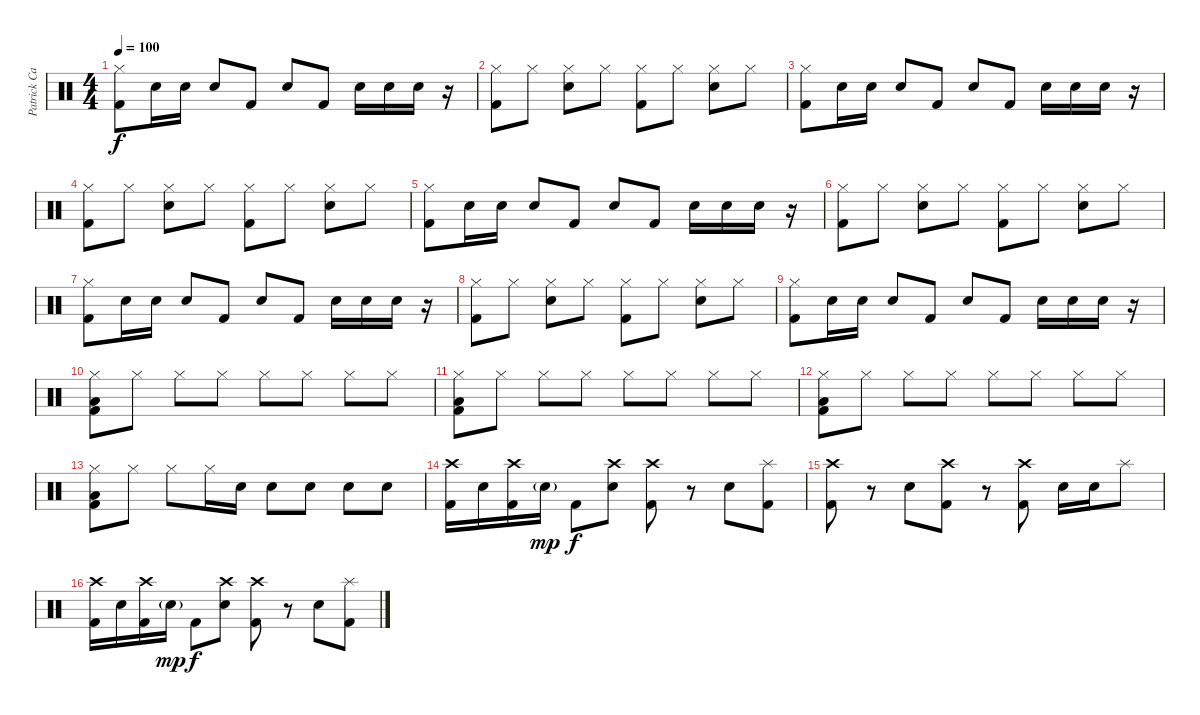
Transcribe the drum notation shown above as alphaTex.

\track ("Patrick Carney" "Patrick Ca") {instrument percussion}
\staff {score}
\articulation defaults
\ts (4 4)
\tempo 100
\clef neutral
\ks c
("Hi-Hat (closed)" "Kick (hit) 2").8{dy f} "Snare (hit) 2".16 "Snare (hit) 2".16 "Snare (hit) 2".8 "Kick (hit) 2".8 "Snare (hit) 2".8 "Kick (hit) 2".8 "Snare (hit) 2".16 "Snare (hit) 2".16 "Snare (hit) 2".16 r.16 |
("Hi-Hat (closed)" "Kick (hit) 2").8 "Hi-Hat (closed)".8 ("Hi-Hat (closed)" "Snare (hit) 2").8 "Hi-Hat (closed)".8 ("Hi-Hat (closed)" "Kick (hit) 2").8 "Hi-Hat (closed)".8 ("Hi-Hat (closed)" "Snare (hit) 2").8 "Hi-Hat (closed)".8 |
("Hi-Hat (closed)" "Kick (hit) 2").8 "Snare (hit) 2".16 "Snare (hit) 2".16 "Snare (hit) 2".8 "Kick (hit) 2".8 "Snare (hit) 2".8 "Kick (hit) 2".8 "Snare (hit) 2".16 "Snare (hit) 2".16 "Snare (hit) 2".16 r.16 |
("Hi-Hat (closed)" "Kick (hit) 2").8 "Hi-Hat (closed)".8 ("Hi-Hat (closed)" "Snare (hit) 2").8 "Hi-Hat (closed)".8 ("Hi-Hat (closed)" "Kick (hit) 2").8 "Hi-Hat (closed)".8 ("Hi-Hat (closed)" "Snare (hit) 2").8 "Hi-Hat (closed)".8 |
("Hi-Hat (closed)" "Kick (hit) 2").8 "Snare (hit) 2".16 "Snare (hit) 2".16 "Snare (hit) 2".8 "Kick (hit) 2".8 "Snare (hit) 2".8 "Kick (hit) 2".8 "Snare (hit) 2".16 "Snare (hit) 2".16 "Snare (hit) 2".16 r.16 |
("Hi-Hat (closed)" "Kick (hit) 2").8 "Hi-Hat (closed)".8 ("Hi-Hat (closed)" "Snare (hit) 2").8 "Hi-Hat (closed)".8 ("Hi-Hat (closed)" "Kick (hit) 2").8 "Hi-Hat (closed)".8 ("Hi-Hat (closed)" "Snare (hit) 2").8 "Hi-Hat (closed)".8 |
("Hi-Hat (closed)" "Kick (hit) 2").8 "Snare (hit) 2".16 "Snare (hit) 2".16 "Snare (hit) 2".8 "Kick (hit) 2".8 "Snare (hit) 2".8 "Kick (hit) 2".8 "Snare (hit) 2".16 "Snare (hit) 2".16 "Snare (hit) 2".16 r.16 |
("Hi-Hat (closed)" "Kick (hit) 2").8 "Hi-Hat (closed)".8 ("Hi-Hat (closed)" "Snare (hit) 2").8 "Hi-Hat (closed)".8 ("Hi-Hat (closed)" "Kick (hit) 2").8 "Hi-Hat (closed)".8 ("Hi-Hat (closed)" "Snare (hit) 2").8 "Hi-Hat (closed)".8 |
("Hi-Hat (closed)" "Kick (hit) 2").8 "Snare (hit) 2".16 "Snare (hit) 2".16 "Snare (hit) 2".8 "Kick (hit) 2".8 "Snare (hit) 2".8 "Kick (hit) 2".8 "Snare (hit) 2".16 "Snare (hit) 2".16 "Snare (hit) 2".16 r.16 |
("Hi-Hat (closed)" "Low Floor Tom (hit)" "Kick (hit) 2").8 "Hi-Hat (closed)".8 "Hi-Hat (closed)".8 "Hi-Hat (closed)".8 "Hi-Hat (closed)".8 "Hi-Hat (closed)".8 "Hi-Hat (closed)".8 "Hi-Hat (closed)".8 |
("Hi-Hat (closed)" "Low Floor Tom (hit)" "Kick (hit) 2").8 "Hi-Hat (closed)".8 "Hi-Hat (closed)".8 "Hi-Hat (closed)".8 "Hi-Hat (closed)".8 "Hi-Hat (closed)".8 "Hi-Hat (closed)".8 "Hi-Hat (closed)".8 |
("Hi-Hat (closed)" "Low Floor Tom (hit)" "Kick (hit) 2").8 "Hi-Hat (closed)".8 "Hi-Hat (closed)".8 "Hi-Hat (closed)".8 "Hi-Hat (closed)".8 "Hi-Hat (closed)".8 "Hi-Hat (closed)".8 "Hi-Hat (closed)".8 |
("Hi-Hat (closed)" "Low Floor Tom (hit)" "Kick (hit) 2").8 "Hi-Hat (closed)".8 "Hi-Hat (closed)".8 "Hi-Hat (closed)".16 "Snare (hit) 2".16 "Snare (hit) 2".8 "Snare (hit) 2".8 "Snare (hit) 2".8 "Snare (hit) 2".8 |
("Crash high (hit)" "Kick (hit) 2").16 "Snare (hit) 2".16 ("Crash high (hit)" "Kick (hit) 2").16 "Snare (hit) 2"{g}.16{dy mp} "Kick (hit) 2".8{dy f} ("Crash high (hit)" "Snare (hit) 2").8 ("Crash high (hit)" "Kick (hit) 2").8 r.8 "Snare (hit) 2".8 ("Splash (hit)" "Kick (hit) 2").8 |
("Crash high (hit)" "Kick (hit) 2").8 r.8 "Snare (hit) 2".8 ("Crash high (hit)" "Kick (hit) 2").8 r.8 ("Crash high (hit)" "Kick (hit) 2").8 "Snare (hit) 2".16 "Snare (hit) 2".16 "Splash (hit)".8 |
("Crash high (hit)" "Kick (hit) 2").16 "Snare (hit) 2".16 ("Crash high (hit)" "Kick (hit) 2").16 "Snare (hit) 2"{g}.16{dy mp} "Kick (hit) 2".8{dy f} ("Crash high (hit)" "Snare (hit) 2").8 ("Crash high (hit)" "Kick (hit) 2").8 r.8 "Snare (hit) 2".8 ("Splash (hit)" "Kick (hit) 2").8
